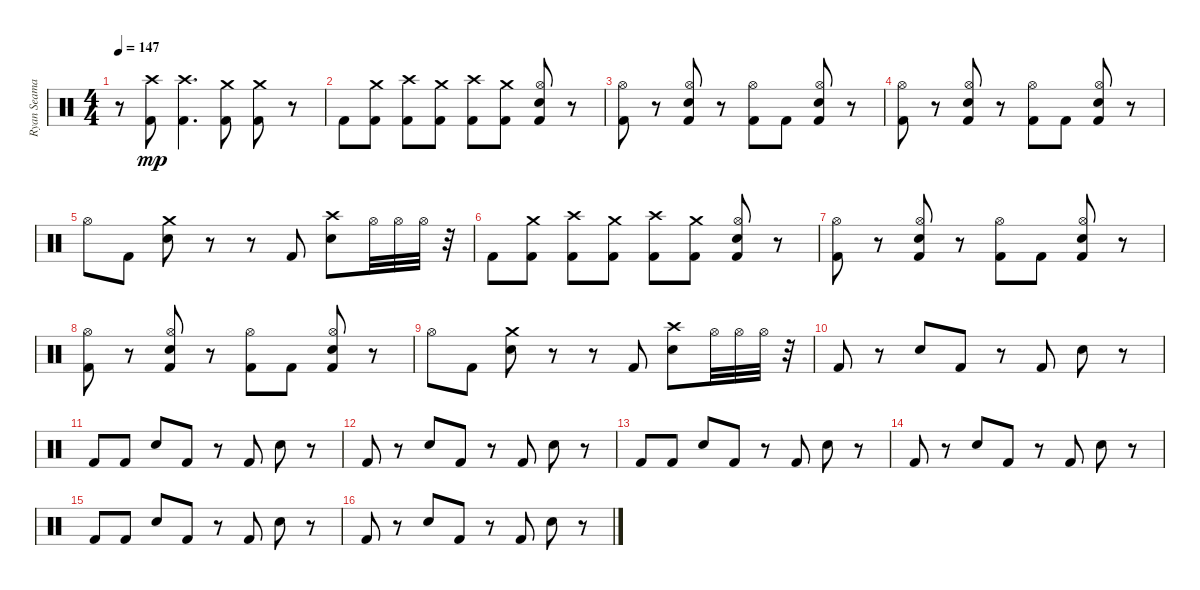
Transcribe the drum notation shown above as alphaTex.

\track ("Ryan Seaman - Drum" "Ryan Seama") {instrument percussion}
\staff {score}
\articulation defaults
\ts (4 4)
\tempo 147
\clef neutral
\ks c
r.8{dy mp} ("Crash high (hit)" "Kick (hit) 2").8 ("Crash high (hit)" "Kick (hit) 2").4{d} ("Crash medium (hit)" "Kick (hit) 2").8 ("Crash medium (hit)" "Kick (hit) 2").8 r.8 |
"Kick (hit) 2".8 ("Crash medium (hit)" "Kick (hit) 2").8 ("Crash high (hit)" "Kick (hit) 2").8 ("Crash medium (hit)" "Kick (hit) 2").8 ("Crash high (hit)" "Kick (hit) 2").8 ("Crash medium (hit)" "Kick (hit) 2").8 ("Hi-Hat (open)" "Electric Snare (hit)" "Kick (hit) 2").8 r.8 |
("Hi-Hat (open)" "Kick (hit) 2").8 r.8 ("Hi-Hat (open)" "Electric Snare (hit)" "Kick (hit) 2").8 r.8 ("Hi-Hat (open)" "Kick (hit) 2").8 "Kick (hit) 2".8 ("Hi-Hat (open)" "Electric Snare (hit)" "Kick (hit) 2").8 r.8 |
("Hi-Hat (open)" "Kick (hit) 2").8 r.8 ("Hi-Hat (open)" "Electric Snare (hit)" "Kick (hit) 2").8 r.8 ("Hi-Hat (open)" "Kick (hit) 2").8 "Kick (hit) 2".8 ("Hi-Hat (open)" "Electric Snare (hit)" "Kick (hit) 2").8 r.8 |
"Hi-Hat (open)".8 "Kick (hit) 2".8 ("Crash medium (hit)" "Electric Snare (hit)").8 r.8 r.8 "Kick (hit) 2".8 ("Crash high (hit)" "Electric Snare (hit)").8 "Hi-Hat (open)".32 "Hi-Hat (open)".32 "Hi-Hat (open)".32 r.32 |
"Kick (hit) 2".8 ("Crash medium (hit)" "Kick (hit) 2").8 ("Crash high (hit)" "Kick (hit) 2").8 ("Crash medium (hit)" "Kick (hit) 2").8 ("Crash high (hit)" "Kick (hit) 2").8 ("Crash medium (hit)" "Kick (hit) 2").8 ("Hi-Hat (open)" "Electric Snare (hit)" "Kick (hit) 2").8 r.8 |
("Hi-Hat (open)" "Kick (hit) 2").8 r.8 ("Hi-Hat (open)" "Electric Snare (hit)" "Kick (hit) 2").8 r.8 ("Hi-Hat (open)" "Kick (hit) 2").8 "Kick (hit) 2".8 ("Hi-Hat (open)" "Electric Snare (hit)" "Kick (hit) 2").8 r.8 |
("Hi-Hat (open)" "Kick (hit) 2").8 r.8 ("Hi-Hat (open)" "Electric Snare (hit)" "Kick (hit) 2").8 r.8 ("Hi-Hat (open)" "Kick (hit) 2").8 "Kick (hit) 2".8 ("Hi-Hat (open)" "Electric Snare (hit)" "Kick (hit) 2").8 r.8 |
"Hi-Hat (open)".8 "Kick (hit) 2".8 ("Crash medium (hit)" "Electric Snare (hit)").8 r.8 r.8 "Kick (hit) 2".8 ("Crash high (hit)" "Electric Snare (hit)").8 "Hi-Hat (open)".32 "Hi-Hat (open)".32 "Hi-Hat (open)".32 r.32 |
"Kick (hit) 2".8 r.8 "Electric Snare (hit)".8 "Kick (hit) 2".8 r.8 "Kick (hit) 2".8 "Electric Snare (hit)".8 r.8 |
"Kick (hit) 2".8 "Kick (hit) 2".8 "Electric Snare (hit)".8 "Kick (hit) 2".8 r.8 "Kick (hit) 2".8 "Electric Snare (hit)".8 r.8 |
"Kick (hit) 2".8 r.8 "Electric Snare (hit)".8 "Kick (hit) 2".8 r.8 "Kick (hit) 2".8 "Electric Snare (hit)".8 r.8 |
"Kick (hit) 2".8 "Kick (hit) 2".8 "Electric Snare (hit)".8 "Kick (hit) 2".8 r.8 "Kick (hit) 2".8 "Electric Snare (hit)".8 r.8 |
"Kick (hit) 2".8 r.8 "Electric Snare (hit)".8 "Kick (hit) 2".8 r.8 "Kick (hit) 2".8 "Electric Snare (hit)".8 r.8 |
"Kick (hit) 2".8 "Kick (hit) 2".8 "Electric Snare (hit)".8 "Kick (hit) 2".8 r.8 "Kick (hit) 2".8 "Electric Snare (hit)".8 r.8 |
"Kick (hit) 2".8 r.8 "Electric Snare (hit)".8 "Kick (hit) 2".8 r.8 "Kick (hit) 2".8 "Electric Snare (hit)".8 r.8
